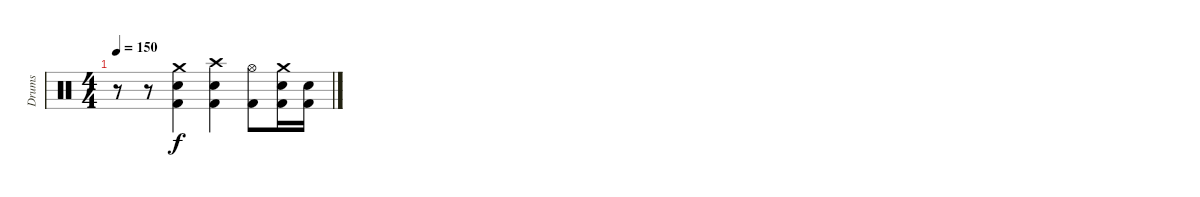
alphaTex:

\track ("Drums" "Drums") {instrument percussion}
\staff {score}
\articulation defaults
\ts (4 4)
\tempo 150
\clef neutral
\ks c
r.8{dy f} r.8 ("Crash medium (hit)" "Snare (hit) 2" "Kick (hit) 2").4 ("Crash high (hit)" "Snare (hit) 2" "Kick (hit) 2").4 ("Hi-Hat (open)" "Kick (hit) 2").8 ("Crash medium (hit)" "Snare (hit) 2" "Kick (hit) 2").16 ("Snare (hit) 2" "Kick (hit) 2").16
